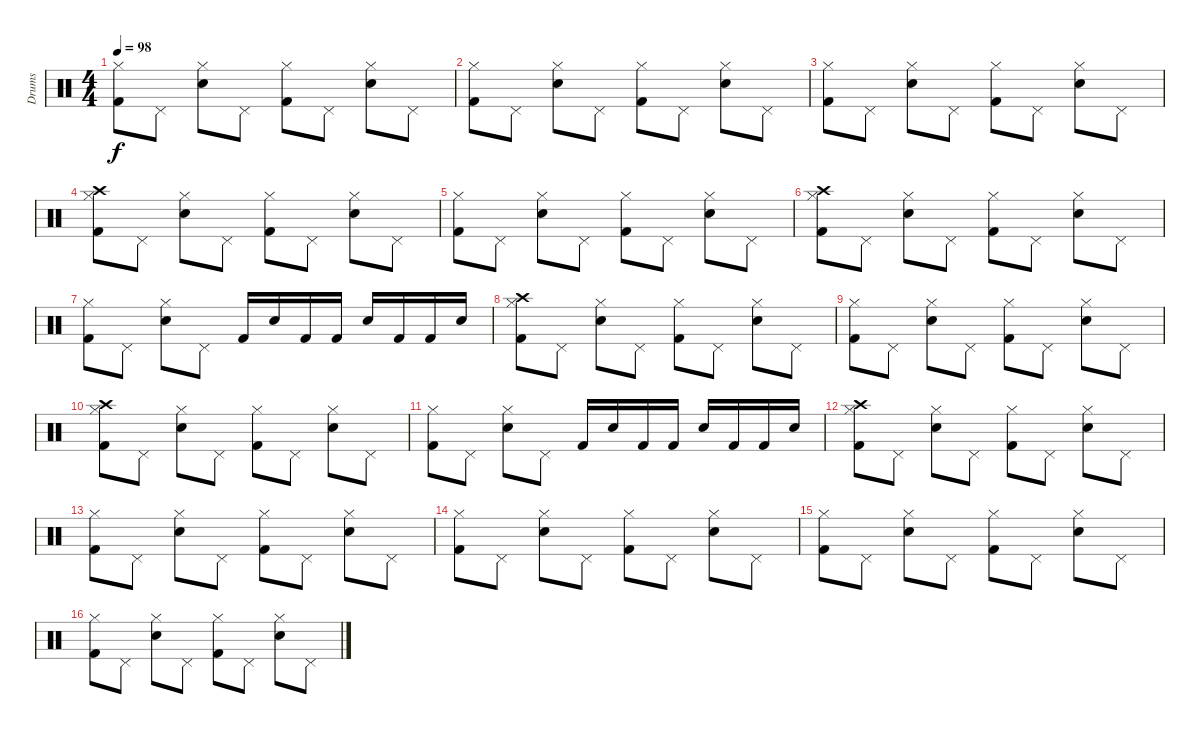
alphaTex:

\track ("Drums" "Drums") {instrument percussion}
\staff {score}
\articulation defaults
\ts (4 4)
\tempo 98
\clef neutral
\ks c
("Hi-Hat (closed)" "Kick (hit) 2").8{dy f} "Pedal Hi-Hat (hit)".8 ("Hi-Hat (closed)" "Snare (hit) 2").8 "Pedal Hi-Hat (hit)".8 ("Hi-Hat (closed)" "Kick (hit) 2").8 "Pedal Hi-Hat (hit)".8 ("Hi-Hat (closed)" "Snare (hit) 2").8 "Pedal Hi-Hat (hit)".8 |
("Hi-Hat (closed)" "Kick (hit) 2").8 "Pedal Hi-Hat (hit)".8 ("Hi-Hat (closed)" "Snare (hit) 2").8 "Pedal Hi-Hat (hit)".8 ("Hi-Hat (closed)" "Kick (hit) 2").8 "Pedal Hi-Hat (hit)".8 ("Hi-Hat (closed)" "Snare (hit) 2").8 "Pedal Hi-Hat (hit)".8 |
("Hi-Hat (closed)" "Kick (hit) 2").8 "Pedal Hi-Hat (hit)".8 ("Hi-Hat (closed)" "Snare (hit) 2").8 "Pedal Hi-Hat (hit)".8 ("Hi-Hat (closed)" "Kick (hit) 2").8 "Pedal Hi-Hat (hit)".8 ("Hi-Hat (closed)" "Snare (hit) 2").8 "Pedal Hi-Hat (hit)".8 |
("Hi-Hat (closed)" "Kick (hit) 2" "Crash high (hit)").8 "Pedal Hi-Hat (hit)".8 ("Hi-Hat (closed)" "Snare (hit) 2").8 "Pedal Hi-Hat (hit)".8 ("Hi-Hat (closed)" "Kick (hit) 2").8 "Pedal Hi-Hat (hit)".8 ("Hi-Hat (closed)" "Snare (hit) 2").8 "Pedal Hi-Hat (hit)".8 |
("Hi-Hat (closed)" "Kick (hit) 2").8 "Pedal Hi-Hat (hit)".8 ("Hi-Hat (closed)" "Snare (hit) 2").8 "Pedal Hi-Hat (hit)".8 ("Hi-Hat (closed)" "Kick (hit) 2").8 "Pedal Hi-Hat (hit)".8 ("Hi-Hat (closed)" "Snare (hit) 2").8 "Pedal Hi-Hat (hit)".8 |
("Hi-Hat (closed)" "Kick (hit) 2" "Crash high (hit)").8 "Pedal Hi-Hat (hit)".8 ("Hi-Hat (closed)" "Snare (hit) 2").8 "Pedal Hi-Hat (hit)".8 ("Hi-Hat (closed)" "Kick (hit) 2").8 "Pedal Hi-Hat (hit)".8 ("Hi-Hat (closed)" "Snare (hit) 2").8 "Pedal Hi-Hat (hit)".8 |
("Hi-Hat (closed)" "Kick (hit) 2").8 "Pedal Hi-Hat (hit)".8 ("Hi-Hat (closed)" "Snare (hit) 2").8 "Pedal Hi-Hat (hit)".8 "Kick (hit) 2".16 "Snare (hit) 2".16 "Kick (hit) 2".16 "Kick (hit) 2".16 "Snare (hit) 2".16 "Kick (hit) 2".16 "Kick (hit) 2".16 "Snare (hit) 2".16 |
("Hi-Hat (closed)" "Kick (hit) 2" "Crash high (hit)").8 "Pedal Hi-Hat (hit)".8 ("Hi-Hat (closed)" "Snare (hit) 2").8 "Pedal Hi-Hat (hit)".8 ("Hi-Hat (closed)" "Kick (hit) 2").8 "Pedal Hi-Hat (hit)".8 ("Hi-Hat (closed)" "Snare (hit) 2").8 "Pedal Hi-Hat (hit)".8 |
("Hi-Hat (closed)" "Kick (hit) 2").8 "Pedal Hi-Hat (hit)".8 ("Hi-Hat (closed)" "Snare (hit) 2").8 "Pedal Hi-Hat (hit)".8 ("Hi-Hat (closed)" "Kick (hit) 2").8 "Pedal Hi-Hat (hit)".8 ("Hi-Hat (closed)" "Snare (hit) 2").8 "Pedal Hi-Hat (hit)".8 |
("Hi-Hat (closed)" "Kick (hit) 2" "Crash high (hit)").8 "Pedal Hi-Hat (hit)".8 ("Hi-Hat (closed)" "Snare (hit) 2").8 "Pedal Hi-Hat (hit)".8 ("Hi-Hat (closed)" "Kick (hit) 2").8 "Pedal Hi-Hat (hit)".8 ("Hi-Hat (closed)" "Snare (hit) 2").8 "Pedal Hi-Hat (hit)".8 |
("Hi-Hat (closed)" "Kick (hit) 2").8 "Pedal Hi-Hat (hit)".8 ("Hi-Hat (closed)" "Snare (hit) 2").8 "Pedal Hi-Hat (hit)".8 "Kick (hit) 2".16 "Snare (hit) 2".16 "Kick (hit) 2".16 "Kick (hit) 2".16 "Snare (hit) 2".16 "Kick (hit) 2".16 "Kick (hit) 2".16 "Snare (hit) 2".16 |
("Hi-Hat (closed)" "Kick (hit) 2" "Crash high (hit)").8 "Pedal Hi-Hat (hit)".8 ("Hi-Hat (closed)" "Snare (hit) 2").8 "Pedal Hi-Hat (hit)".8 ("Hi-Hat (closed)" "Kick (hit) 2").8 "Pedal Hi-Hat (hit)".8 ("Hi-Hat (closed)" "Snare (hit) 2").8 "Pedal Hi-Hat (hit)".8 |
("Hi-Hat (closed)" "Kick (hit) 2").8 "Pedal Hi-Hat (hit)".8 ("Hi-Hat (closed)" "Snare (hit) 2").8 "Pedal Hi-Hat (hit)".8 ("Hi-Hat (closed)" "Kick (hit) 2").8 "Pedal Hi-Hat (hit)".8 ("Hi-Hat (closed)" "Snare (hit) 2").8 "Pedal Hi-Hat (hit)".8 |
("Hi-Hat (closed)" "Kick (hit) 2").8 "Pedal Hi-Hat (hit)".8 ("Hi-Hat (closed)" "Snare (hit) 2").8 "Pedal Hi-Hat (hit)".8 ("Hi-Hat (closed)" "Kick (hit) 2").8 "Pedal Hi-Hat (hit)".8 ("Hi-Hat (closed)" "Snare (hit) 2").8 "Pedal Hi-Hat (hit)".8 |
("Hi-Hat (closed)" "Kick (hit) 2").8 "Pedal Hi-Hat (hit)".8 ("Hi-Hat (closed)" "Snare (hit) 2").8 "Pedal Hi-Hat (hit)".8 ("Hi-Hat (closed)" "Kick (hit) 2").8 "Pedal Hi-Hat (hit)".8 ("Hi-Hat (closed)" "Snare (hit) 2").8 "Pedal Hi-Hat (hit)".8 |
("Hi-Hat (closed)" "Kick (hit) 2").8 "Pedal Hi-Hat (hit)".8 ("Hi-Hat (closed)" "Snare (hit) 2").8 "Pedal Hi-Hat (hit)".8 ("Hi-Hat (closed)" "Kick (hit) 2").8 "Pedal Hi-Hat (hit)".8 ("Hi-Hat (closed)" "Snare (hit) 2").8 "Pedal Hi-Hat (hit)".8
